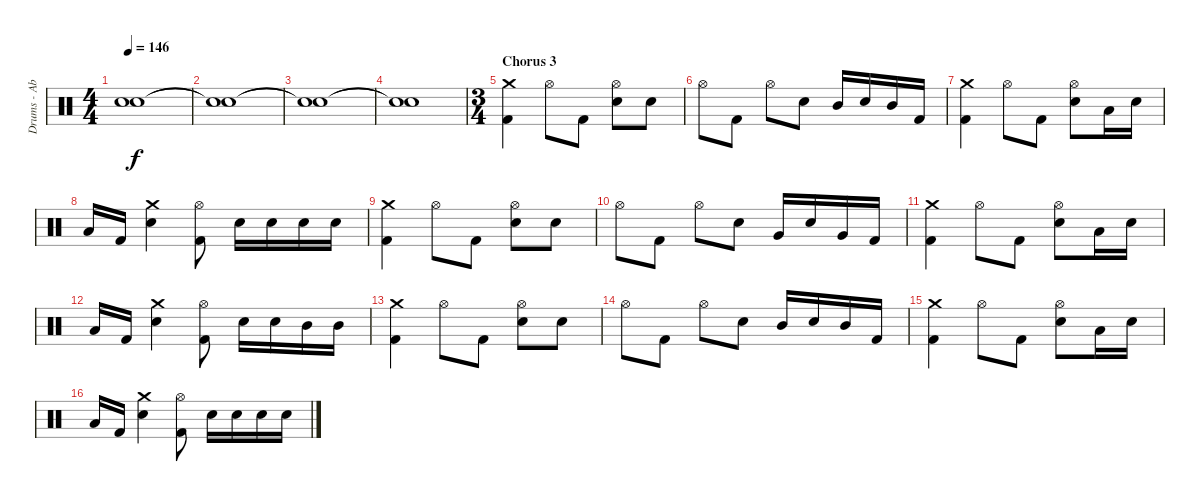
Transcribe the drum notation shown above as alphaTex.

\track ("Drums - Abe Cunningham" "Drums - Ab") {instrument percussion}
\staff {score}
\articulation defaults
\ts (4 4)
\tempo 146
\clef neutral
\ks c
("Snare (hit)"{t} "Snare (hit)"{t}).1{dy f} |
("Snare (hit)"{t} "Snare (hit)"{t}).1 |
("Snare (hit)"{t} "Snare (hit)"{t}).1 |
("Snare (hit)"{t} "Snare (hit)"{t}).1 |
\ts (3 4)
\section ("" "Chorus 3")
("Crash medium (hit)" "Kick (hit) 2").4 "Hi-Hat (open)".8 "Kick (hit) 2".8 ("Hi-Hat (open)" "Electric Snare (hit)").8 "Electric Snare (hit)".8 |
"Hi-Hat (open)".8 "Kick (hit) 2".8 "Hi-Hat (open)".8 "Electric Snare (hit)".8 "Mid Tom (hit)".16 "Electric Snare (hit)".16 "Mid Tom (hit)".16 "Kick (hit) 2".16 |
("Crash medium (hit)" "Kick (hit) 2").4 "Hi-Hat (open)".8 "Kick (hit) 2".8 ("Hi-Hat (open)" "Electric Snare (hit)").8 "Low Tom (hit)".16 "Electric Snare (hit)".16 |
"Low Tom (hit)".16 "Kick (hit) 2".16 ("Crash medium (hit)" "Electric Snare (hit)").4 ("Hi-Hat (open)" "Kick (hit) 2").8 "Electric Snare (hit)".16 "Electric Snare (hit)".16 "Electric Snare (hit)".16 "Electric Snare (hit)".16 |
("Crash medium (hit)" "Kick (hit) 2").4 "Hi-Hat (open)".8 "Kick (hit) 2".8 ("Hi-Hat (open)" "Electric Snare (hit)").8 "Electric Snare (hit)".8 |
"Hi-Hat (open)".8 "Kick (hit) 2".8 "Hi-Hat (open)".8 "Electric Snare (hit)".8 "Very Low Tom (hit)".16 "Electric Snare (hit)".16 "Very Low Tom (hit)".16 "Kick (hit) 2".16 |
("Crash medium (hit)" "Kick (hit) 2").4 "Hi-Hat (open)".8 "Kick (hit) 2".8 ("Hi-Hat (open)" "Electric Snare (hit)").8 "Low Tom (hit)".16 "Electric Snare (hit)".16 |
"Low Tom (hit)".16 "Kick (hit) 2".16 ("Crash medium (hit)" "Electric Snare (hit)").4 ("Hi-Hat (open)" "Kick (hit) 2").8 "Electric Snare (hit)".16 "Electric Snare (hit)".16 "Mid Tom (hit)".16 "Mid Tom (hit)".16 |
("Crash medium (hit)" "Kick (hit) 2").4 "Hi-Hat (open)".8 "Kick (hit) 2".8 ("Hi-Hat (open)" "Electric Snare (hit)").8 "Electric Snare (hit)".8 |
"Hi-Hat (open)".8 "Kick (hit) 2".8 "Hi-Hat (open)".8 "Electric Snare (hit)".8 "Mid Tom (hit)".16 "Electric Snare (hit)".16 "Mid Tom (hit)".16 "Kick (hit) 2".16 |
("Crash medium (hit)" "Kick (hit) 2").4 "Hi-Hat (open)".8 "Kick (hit) 2".8 ("Hi-Hat (open)" "Electric Snare (hit)").8 "Low Tom (hit)".16 "Electric Snare (hit)".16 |
"Low Tom (hit)".16 "Kick (hit) 2".16 ("Crash medium (hit)" "Electric Snare (hit)").4 ("Hi-Hat (open)" "Kick (hit) 2").8 "Electric Snare (hit)".16 "Electric Snare (hit)".16 "Electric Snare (hit)".16 "Electric Snare (hit)".16
